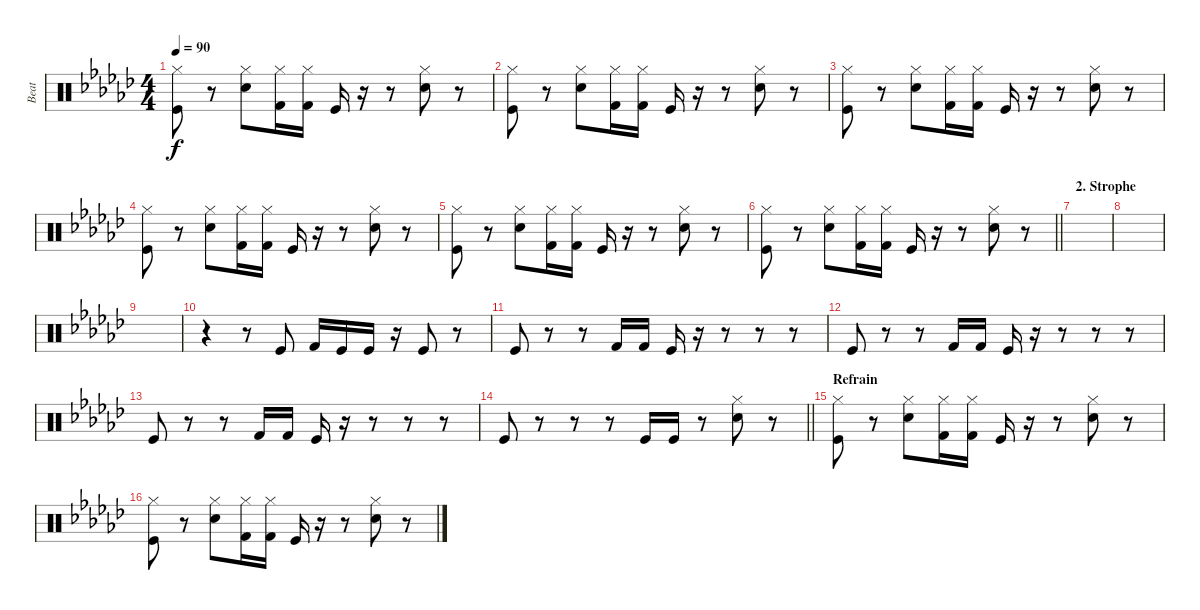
\track ("Beat" "Beat") {instrument percussion}
\staff {score}
\articulation defaults
\ts (4 4)
\tempo 90
\clef neutral
\ks ebminor
("Hi-Hat (closed)" "Kick (hit)").8{dy f} r.8 ("Hi-Hat (closed)" "Electric Snare (hit)").8 ("Hi-Hat (closed)" "Kick (hit) 2").16 ("Hi-Hat (closed)" "Kick (hit) 2").16 "Kick (hit)".16 r.16 r.8 ("Hi-Hat (closed)" "Electric Snare (hit)").8 r.8 |
("Hi-Hat (closed)" "Kick (hit)").8 r.8 ("Hi-Hat (closed)" "Electric Snare (hit)").8 ("Hi-Hat (closed)" "Kick (hit) 2").16 ("Hi-Hat (closed)" "Kick (hit) 2").16 "Kick (hit)".16 r.16 r.8 ("Hi-Hat (closed)" "Electric Snare (hit)").8 r.8 |
("Hi-Hat (closed)" "Kick (hit)").8 r.8 ("Hi-Hat (closed)" "Electric Snare (hit)").8 ("Hi-Hat (closed)" "Kick (hit) 2").16 ("Hi-Hat (closed)" "Kick (hit) 2").16 "Kick (hit)".16 r.16 r.8 ("Hi-Hat (closed)" "Electric Snare (hit)").8 r.8 |
("Hi-Hat (closed)" "Kick (hit)").8 r.8 ("Hi-Hat (closed)" "Electric Snare (hit)").8 ("Hi-Hat (closed)" "Kick (hit) 2").16 ("Hi-Hat (closed)" "Kick (hit) 2").16 "Kick (hit)".16 r.16 r.8 ("Hi-Hat (closed)" "Electric Snare (hit)").8 r.8 |
("Hi-Hat (closed)" "Kick (hit)").8 r.8 ("Hi-Hat (closed)" "Electric Snare (hit)").8 ("Hi-Hat (closed)" "Kick (hit) 2").16 ("Hi-Hat (closed)" "Kick (hit) 2").16 "Kick (hit)".16 r.16 r.8 ("Hi-Hat (closed)" "Electric Snare (hit)").8 r.8 |
\barLineRight lightlight
("Hi-Hat (closed)" "Kick (hit)").8 r.8 ("Hi-Hat (closed)" "Electric Snare (hit)").8 ("Hi-Hat (closed)" "Kick (hit) 2").16 ("Hi-Hat (closed)" "Kick (hit) 2").16 "Kick (hit)".16 r.16 r.8 ("Hi-Hat (closed)" "Electric Snare (hit)").8 r.8 |
\section ("" "2. Strophe")
|
|
|
r.4 r.8 "Kick (hit)".8 "Kick (hit) 2".16 "Kick (hit)".16 "Kick (hit)".16 r.16 "Kick (hit)".8 r.8 |
"Kick (hit)".8 r.8 r.8 "Kick (hit) 2".16 "Kick (hit) 2".16 "Kick (hit)".16 r.16 r.8 r.8 r.8 |
"Kick (hit)".8 r.8 r.8 "Kick (hit) 2".16 "Kick (hit) 2".16 "Kick (hit)".16 r.16 r.8 r.8 r.8 |
"Kick (hit)".8 r.8 r.8 "Kick (hit) 2".16 "Kick (hit) 2".16 "Kick (hit)".16 r.16 r.8 r.8 r.8 |
\barLineRight lightlight "Kick (hit)".8
r.8 r.8 r.8 "Kick (hit)".16 "Kick (hit)".16 r.8 ("Hi-Hat (closed)" "Electric Snare (hit)").8 r.8 |
\section ("" "Refrain")
("Hi-Hat (closed)" "Kick (hit)").8 r.8 ("Hi-Hat (closed)" "Electric Snare (hit)").8 ("Hi-Hat (closed)" "Kick (hit) 2").16 ("Hi-Hat (closed)" "Kick (hit) 2").16 "Kick (hit)".16 r.16 r.8 ("Hi-Hat (closed)" "Electric Snare (hit)").8 r.8 |
("Hi-Hat (closed)" "Kick (hit)").8 r.8 ("Hi-Hat (closed)" "Electric Snare (hit)").8 ("Hi-Hat (closed)" "Kick (hit) 2").16 ("Hi-Hat (closed)" "Kick (hit) 2").16 "Kick (hit)".16 r.16 r.8 ("Hi-Hat (closed)" "Electric Snare (hit)").8 r.8
